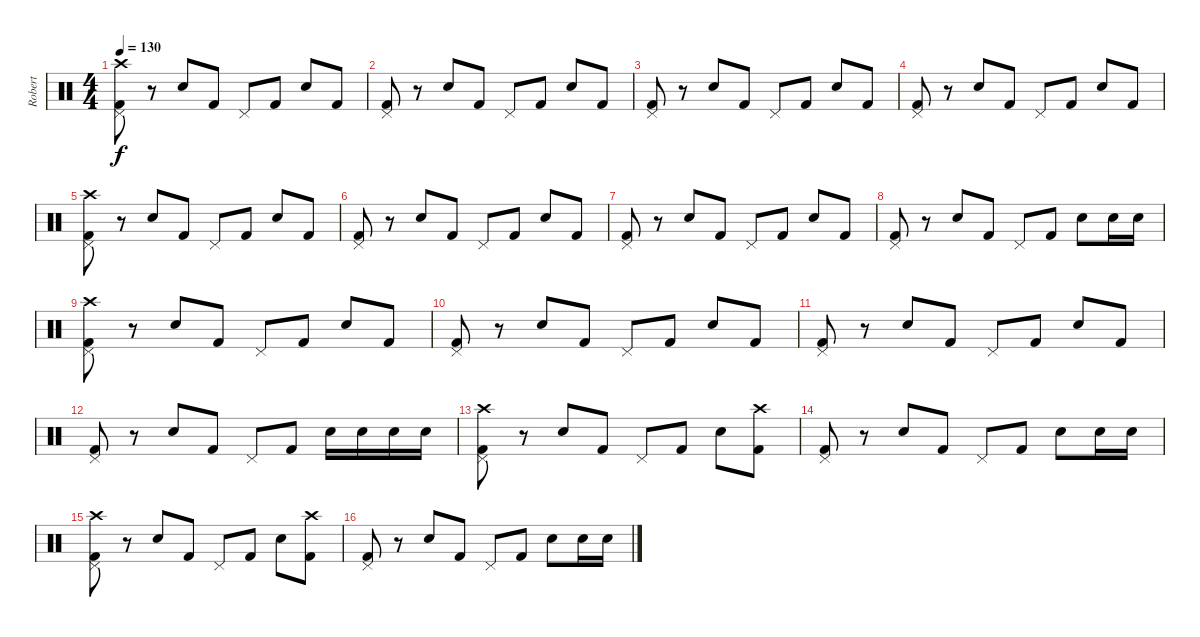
\track ("Robert" "Robert") {instrument percussion}
\staff {score}
\articulation defaults
\ts (4 4)
\tempo 130
\clef neutral
\ks c
("Crash high (hit)" "Pedal Hi-Hat (hit)" "Kick (hit) 2").8{dy f} r.8 "Electric Snare (hit)".8 "Kick (hit) 2".8 "Pedal Hi-Hat (hit)".8 "Kick (hit) 2".8 "Electric Snare (hit)".8 "Kick (hit) 2".8 |
("Pedal Hi-Hat (hit)" "Kick (hit) 2").8 r.8 "Electric Snare (hit)".8 "Kick (hit) 2".8 "Pedal Hi-Hat (hit)".8 "Kick (hit) 2".8 "Electric Snare (hit)".8 "Kick (hit) 2".8 |
("Pedal Hi-Hat (hit)" "Kick (hit) 2").8 r.8 "Electric Snare (hit)".8 "Kick (hit) 2".8 "Pedal Hi-Hat (hit)".8 "Kick (hit) 2".8 "Electric Snare (hit)".8 "Kick (hit) 2".8 |
("Pedal Hi-Hat (hit)" "Kick (hit) 2").8 r.8 "Electric Snare (hit)".8 "Kick (hit) 2".8 "Pedal Hi-Hat (hit)".8 "Kick (hit) 2".8 "Electric Snare (hit)".8 "Kick (hit) 2".8 |
("Crash high (hit)" "Pedal Hi-Hat (hit)" "Kick (hit) 2").8 r.8 "Electric Snare (hit)".8 "Kick (hit) 2".8 "Pedal Hi-Hat (hit)".8 "Kick (hit) 2".8 "Electric Snare (hit)".8 "Kick (hit) 2".8 |
("Pedal Hi-Hat (hit)" "Kick (hit) 2").8 r.8 "Electric Snare (hit)".8 "Kick (hit) 2".8 "Pedal Hi-Hat (hit)".8 "Kick (hit) 2".8 "Electric Snare (hit)".8 "Kick (hit) 2".8 |
("Pedal Hi-Hat (hit)" "Kick (hit) 2").8 r.8 "Electric Snare (hit)".8 "Kick (hit) 2".8 "Pedal Hi-Hat (hit)".8 "Kick (hit) 2".8 "Electric Snare (hit)".8 "Kick (hit) 2".8 |
("Pedal Hi-Hat (hit)" "Kick (hit) 2").8 r.8 "Electric Snare (hit)".8 "Kick (hit) 2".8 "Pedal Hi-Hat (hit)".8 "Kick (hit) 2".8 "Electric Snare (hit)".8 "Electric Snare (hit)".16 "Electric Snare (hit)".16 |
("Crash high (hit)" "Pedal Hi-Hat (hit)" "Kick (hit) 2").8 r.8 "Electric Snare (hit)".8 "Kick (hit) 2".8 "Pedal Hi-Hat (hit)".8 "Kick (hit) 2".8 "Electric Snare (hit)".8 "Kick (hit) 2".8 |
("Pedal Hi-Hat (hit)" "Kick (hit) 2").8 r.8 "Electric Snare (hit)".8 "Kick (hit) 2".8 "Pedal Hi-Hat (hit)".8 "Kick (hit) 2".8 "Electric Snare (hit)".8 "Kick (hit) 2".8 |
("Pedal Hi-Hat (hit)" "Kick (hit) 2").8 r.8 "Electric Snare (hit)".8 "Kick (hit) 2".8 "Pedal Hi-Hat (hit)".8 "Kick (hit) 2".8 "Electric Snare (hit)".8 "Kick (hit) 2".8 |
("Pedal Hi-Hat (hit)" "Kick (hit) 2").8 r.8 "Electric Snare (hit)".8 "Kick (hit) 2".8 "Pedal Hi-Hat (hit)".8 "Kick (hit) 2".8 "Electric Snare (hit)".16 "Electric Snare (hit)".16 "Electric Snare (hit)".16 "Electric Snare (hit)".16 |
("Crash high (hit)" "Pedal Hi-Hat (hit)" "Kick (hit) 2").8 r.8 "Electric Snare (hit)".8 "Kick (hit) 2".8 "Pedal Hi-Hat (hit)".8 "Kick (hit) 2".8 "Electric Snare (hit)".8 ("Crash high (hit)" "Kick (hit) 2").8 |
("Pedal Hi-Hat (hit)" "Kick (hit) 2").8 r.8 "Electric Snare (hit)".8 "Kick (hit) 2".8 "Pedal Hi-Hat (hit)".8 "Kick (hit) 2".8 "Electric Snare (hit)".8 "Electric Snare (hit)".16 "Electric Snare (hit)".16 |
("Crash high (hit)" "Pedal Hi-Hat (hit)" "Kick (hit) 2").8 r.8 "Electric Snare (hit)".8 "Kick (hit) 2".8 "Pedal Hi-Hat (hit)".8 "Kick (hit) 2".8 "Electric Snare (hit)".8 ("Crash high (hit)" "Kick (hit) 2").8 |
("Pedal Hi-Hat (hit)" "Kick (hit) 2").8 r.8 "Electric Snare (hit)".8 "Kick (hit) 2".8 "Pedal Hi-Hat (hit)".8 "Kick (hit) 2".8 "Electric Snare (hit)".8 "Electric Snare (hit)".16 "Electric Snare (hit)".16
